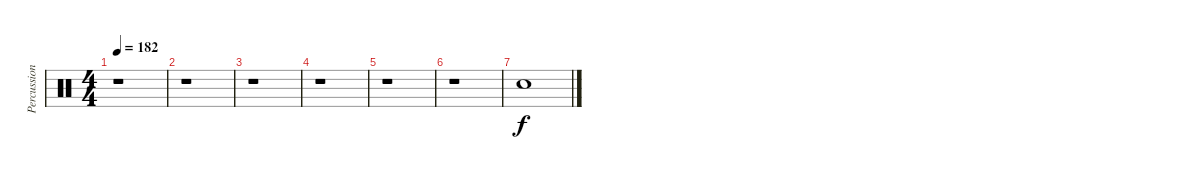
\track ("Percussion" "Percussion") {instrument percussion}
\staff {score}
\articulation defaults
\ts (4 4)
\tempo 182
\clef neutral
\ks c
r.1{dy f} |
r.1 |
r.1 |
r.1 |
r.1 |
r.1 |
"Snare (hit)".1
